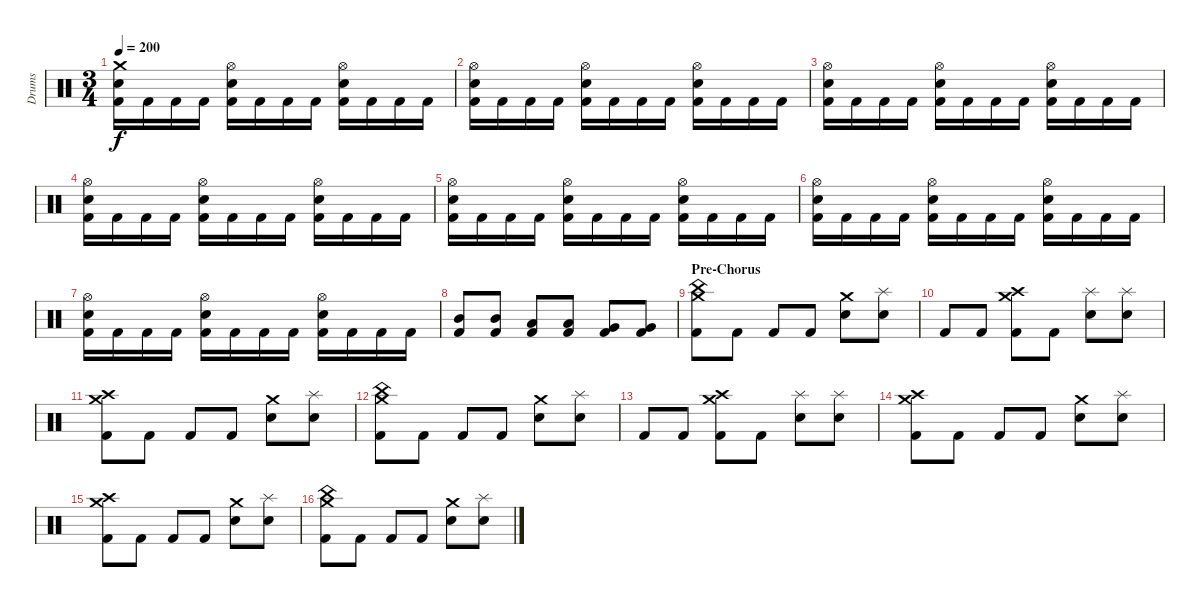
\track ("Drums" "Drums") {instrument percussion}
\staff {score}
\articulation defaults
\ts (3 4)
\tempo 200
\clef neutral
\ks c
("Crash medium (hit)" "Snare (hit) 2" "Kick (hit) 2").16{dy f} "Kick (hit) 2".16 "Kick (hit) 2".16 "Kick (hit) 2".16 ("Hi-Hat (open)" "Snare (hit) 2" "Kick (hit) 2").16 "Kick (hit) 2".16 "Kick (hit) 2".16 "Kick (hit) 2".16 ("Hi-Hat (open)" "Snare (hit) 2" "Kick (hit) 2").16 "Kick (hit) 2".16 "Kick (hit) 2".16 "Kick (hit) 2".16 |
("Hi-Hat (open)" "Snare (hit) 2" "Kick (hit) 2").16 "Kick (hit) 2".16 "Kick (hit) 2".16 "Kick (hit) 2".16 ("Hi-Hat (open)" "Snare (hit) 2" "Kick (hit) 2").16 "Kick (hit) 2".16 "Kick (hit) 2".16 "Kick (hit) 2".16 ("Hi-Hat (open)" "Snare (hit) 2" "Kick (hit) 2").16 "Kick (hit) 2".16 "Kick (hit) 2".16 "Kick (hit) 2".16 |
("Hi-Hat (open)" "Snare (hit) 2" "Kick (hit) 2").16 "Kick (hit) 2".16 "Kick (hit) 2".16 "Kick (hit) 2".16 ("Hi-Hat (open)" "Snare (hit) 2" "Kick (hit) 2").16 "Kick (hit) 2".16 "Kick (hit) 2".16 "Kick (hit) 2".16 ("Hi-Hat (open)" "Snare (hit) 2" "Kick (hit) 2").16 "Kick (hit) 2".16 "Kick (hit) 2".16 "Kick (hit) 2".16 |
("Hi-Hat (open)" "Snare (hit) 2" "Kick (hit) 2").16 "Kick (hit) 2".16 "Kick (hit) 2".16 "Kick (hit) 2".16 ("Hi-Hat (open)" "Snare (hit) 2" "Kick (hit) 2").16 "Kick (hit) 2".16 "Kick (hit) 2".16 "Kick (hit) 2".16 ("Hi-Hat (open)" "Snare (hit) 2" "Kick (hit) 2").16 "Kick (hit) 2".16 "Kick (hit) 2".16 "Kick (hit) 2".16 |
("Hi-Hat (open)" "Snare (hit) 2" "Kick (hit) 2").16 "Kick (hit) 2".16 "Kick (hit) 2".16 "Kick (hit) 2".16 ("Hi-Hat (open)" "Snare (hit) 2" "Kick (hit) 2").16 "Kick (hit) 2".16 "Kick (hit) 2".16 "Kick (hit) 2".16 ("Hi-Hat (open)" "Snare (hit) 2" "Kick (hit) 2").16 "Kick (hit) 2".16 "Kick (hit) 2".16 "Kick (hit) 2".16 |
("Hi-Hat (open)" "Snare (hit) 2" "Kick (hit) 2").16 "Kick (hit) 2".16 "Kick (hit) 2".16 "Kick (hit) 2".16 ("Hi-Hat (open)" "Snare (hit) 2" "Kick (hit) 2").16 "Kick (hit) 2".16 "Kick (hit) 2".16 "Kick (hit) 2".16 ("Hi-Hat (open)" "Snare (hit) 2" "Kick (hit) 2").16 "Kick (hit) 2".16 "Kick (hit) 2".16 "Kick (hit) 2".16 |
("Hi-Hat (open)" "Snare (hit) 2" "Kick (hit) 2").16 "Kick (hit) 2".16 "Kick (hit) 2".16 "Kick (hit) 2".16 ("Hi-Hat (open)" "Snare (hit) 2" "Kick (hit) 2").16 "Kick (hit) 2".16 "Kick (hit) 2".16 "Kick (hit) 2".16 ("Hi-Hat (open)" "Snare (hit) 2" "Kick (hit) 2").16 "Kick (hit) 2".16 "Kick (hit) 2".16 "Kick (hit) 2".16 |
("Mid Tom (hit)" "Kick (hit) 2").8 ("Mid Tom (hit)" "Kick (hit) 2").8 ("Low Tom (hit)" "Kick (hit) 2").8 ("Low Tom (hit)" "Kick (hit) 2").8 ("Very Low Tom (hit)" "Kick (hit) 2").8 ("Very Low Tom (hit)" "Kick (hit) 2").8 |
\section ("" "Pre-Chorus")
("China (hit)" "Crash medium (hit)" "Kick (hit) 2").8 "Kick (hit) 2".8 "Kick (hit) 2".8 "Kick (hit) 2".8 ("Crash medium (hit)" "Snare (hit) 2").8 ("Splash (hit)" "Snare (hit) 2").8 |
"Kick (hit) 2".8 "Kick (hit) 2".8 ("Crash medium (hit)" "Crash high (hit)" "Kick (hit) 2").8 "Kick (hit) 2".8 ("Splash (hit)" "Snare (hit) 2").8 ("Splash (hit)" "Snare (hit) 2").8 |
("Crash medium (hit)" "Crash high (hit)" "Kick (hit) 2").8 "Kick (hit) 2".8 "Kick (hit) 2".8 "Kick (hit) 2".8 ("Crash medium (hit)" "Snare (hit) 2").8 ("Splash (hit)" "Snare (hit) 2").8 |
("China (hit)" "Crash medium (hit)" "Kick (hit) 2").8 "Kick (hit) 2".8 "Kick (hit) 2".8 "Kick (hit) 2".8 ("Crash medium (hit)" "Snare (hit) 2").8 ("Splash (hit)" "Snare (hit) 2").8 |
"Kick (hit) 2".8 "Kick (hit) 2".8 ("Crash medium (hit)" "Crash high (hit)" "Kick (hit) 2").8 "Kick (hit) 2".8 ("Splash (hit)" "Snare (hit) 2").8 ("Splash (hit)" "Snare (hit) 2").8 |
("Crash medium (hit)" "Crash high (hit)" "Kick (hit) 2").8 "Kick (hit) 2".8 "Kick (hit) 2".8 "Kick (hit) 2".8 ("Crash medium (hit)" "Snare (hit) 2").8 ("Splash (hit)" "Snare (hit) 2").8 |
("Crash medium (hit)" "Crash high (hit)" "Kick (hit) 2").8 "Kick (hit) 2".8 "Kick (hit) 2".8 "Kick (hit) 2".8 ("Crash medium (hit)" "Snare (hit) 2").8 ("Splash (hit)" "Snare (hit) 2").8 |
("China (hit)" "Crash medium (hit)" "Kick (hit) 2").8 "Kick (hit) 2".8 "Kick (hit) 2".8 "Kick (hit) 2".8 ("Crash medium (hit)" "Snare (hit) 2").8 ("Splash (hit)" "Snare (hit) 2").8
